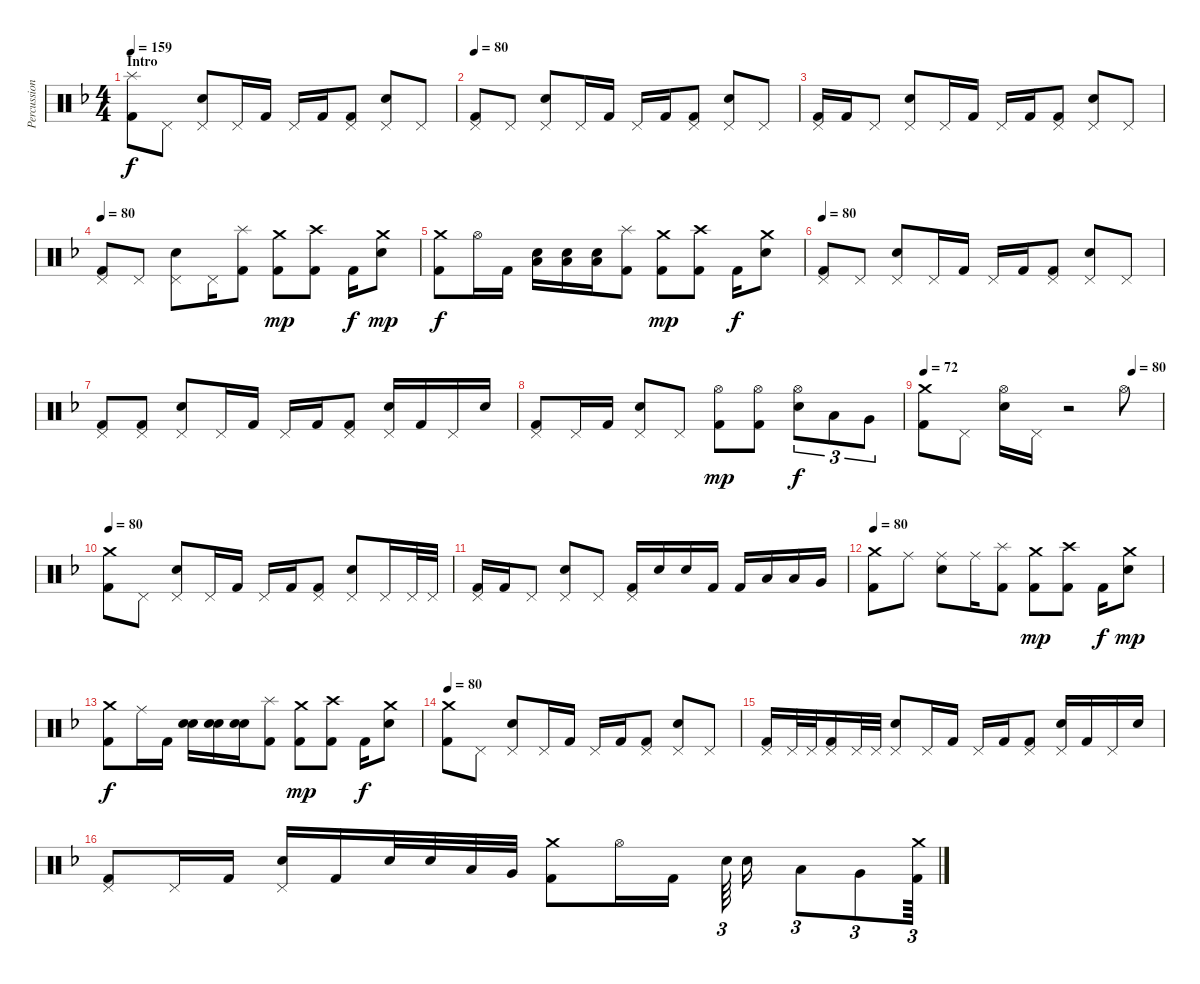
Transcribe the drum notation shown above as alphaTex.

\track ("Percussion" "Percussion") {instrument percussion}
\staff {score}
\articulation defaults
\ts (4 4)
\section ("" "Intro")
\tempo 159
\tempo 80
\tempo 159
\clef neutral
\ks f
("Splash (hit)" "Kick (hit) 2").8{dy f} "Pedal Hi-Hat (hit)".8 ("Pedal Hi-Hat (hit)" "Electric Snare (hit)").8 "Pedal Hi-Hat (hit)".16 "Kick (hit) 2".16 "Pedal Hi-Hat (hit)".16 "Kick (hit) 2".16 ("Pedal Hi-Hat (hit)" "Kick (hit) 2").8 ("Pedal Hi-Hat (hit)" "Electric Snare (hit)").8 "Pedal Hi-Hat (hit)".8 |
\tempo 80
("Pedal Hi-Hat (hit)" "Kick (hit) 2").8 "Pedal Hi-Hat (hit)".8 ("Pedal Hi-Hat (hit)" "Electric Snare (hit)").8 "Pedal Hi-Hat (hit)".16 "Kick (hit) 2".16 "Pedal Hi-Hat (hit)".16 "Kick (hit) 2".16 ("Pedal Hi-Hat (hit)" "Kick (hit) 2").8 ("Pedal Hi-Hat (hit)" "Electric Snare (hit)").8 "Pedal Hi-Hat (hit)".8 |
("Pedal Hi-Hat (hit)" "Kick (hit) 2").16 "Kick (hit) 2".16 "Pedal Hi-Hat (hit)".8 ("Pedal Hi-Hat (hit)" "Electric Snare (hit)").8 "Pedal Hi-Hat (hit)".16 "Kick (hit) 2".16 "Pedal Hi-Hat (hit)".16 "Kick (hit) 2".16 ("Pedal Hi-Hat (hit)" "Kick (hit) 2").8 ("Pedal Hi-Hat (hit)" "Electric Snare (hit)").8 "Pedal Hi-Hat (hit)".8 |
\tempo 80
("Pedal Hi-Hat (hit)" "Kick (hit) 2").8 "Pedal Hi-Hat (hit)".8 ("Pedal Hi-Hat (hit)" "Electric Snare (hit)").8 "Pedal Hi-Hat (hit)".16 ("Splash (hit)" "Kick (hit) 2").8 ("Crash medium (hit)" "Kick (hit) 2").8{dy mp} ("Crash high (hit)" "Kick (hit) 2").8 "Kick (hit) 2".16{dy f} ("Crash medium (hit)" "Electric Snare (hit)").8{dy mp} |
("Crash medium (hit)" "Kick (hit) 2").8{dy f} "Hi-Hat (open)".16 "Kick (hit) 2".16 ("Low Tom (hit)" "Electric Snare (hit)").16 ("Low Tom (hit)" "Electric Snare (hit)").16 ("Low Tom (hit)" "Electric Snare (hit)").16 ("Splash (hit)" "Kick (hit) 2").8 ("Crash medium (hit)" "Kick (hit) 2").8{dy mp} ("Crash high (hit)" "Kick (hit) 2").8 "Kick (hit) 2".16{dy f} ("Crash medium (hit)" "Electric Snare (hit)").8 |
\tempo 80
("Pedal Hi-Hat (hit)" "Kick (hit) 2").8 "Pedal Hi-Hat (hit)".8 ("Pedal Hi-Hat (hit)" "Electric Snare (hit)").8 "Pedal Hi-Hat (hit)".16 "Kick (hit) 2".16 "Pedal Hi-Hat (hit)".16 "Kick (hit) 2".16 ("Pedal Hi-Hat (hit)" "Kick (hit) 2").8 ("Pedal Hi-Hat (hit)" "Electric Snare (hit)").8 "Pedal Hi-Hat (hit)".8 |
("Pedal Hi-Hat (hit)" "Kick (hit) 2").8 ("Pedal Hi-Hat (hit)" "Kick (hit) 2").8 ("Pedal Hi-Hat (hit)" "Electric Snare (hit)").8 "Pedal Hi-Hat (hit)".16 "Kick (hit) 2".16 "Pedal Hi-Hat (hit)".16 "Kick (hit) 2".16 ("Pedal Hi-Hat (hit)" "Kick (hit) 2").8 ("Pedal Hi-Hat (hit)" "Electric Snare (hit)").16 "Kick (hit) 2".16 "Pedal Hi-Hat (hit)".16 "Electric Snare (hit)".16 |
("Pedal Hi-Hat (hit)" "Kick (hit) 2").8 "Pedal Hi-Hat (hit)".16 "Kick (hit) 2".16 ("Pedal Hi-Hat (hit)" "Electric Snare (hit)").8 "Pedal Hi-Hat (hit)".8 ("Hi-Hat (open)" "Kick (hit) 2").8{dy mp} ("Hi-Hat (open)" "Kick (hit) 2").8 ("Hi-Hat (open)" "Electric Snare (hit)").8{tu (3 2) dy f} "Low Tom (hit)".8{tu (3 2)} "Very Low Tom (hit)".8{tu (3 2)} |
\tempo 72
\tempo (80 0.875)
("Crash medium (hit)" "Kick (hit) 2").8 "Pedal Hi-Hat (hit)".8 ("Hi-Hat (open)" "Electric Snare (hit)").16 "Pedal Hi-Hat (hit)".16 r.2 "Hi-Hat (open)".8 |
\tempo 80
("Crash medium (hit)" "Kick (hit) 2").8 "Pedal Hi-Hat (hit)".8 ("Pedal Hi-Hat (hit)" "Electric Snare (hit)").8 "Pedal Hi-Hat (hit)".16 "Kick (hit) 2".16 "Pedal Hi-Hat (hit)".16 "Kick (hit) 2".16 ("Pedal Hi-Hat (hit)" "Kick (hit) 2").8 ("Pedal Hi-Hat (hit)" "Electric Snare (hit)").8 "Pedal Hi-Hat (hit)".16 "Pedal Hi-Hat (hit)".32 "Pedal Hi-Hat (hit)".32 |
("Pedal Hi-Hat (hit)" "Kick (hit) 2").16 "Kick (hit) 2".16 "Pedal Hi-Hat (hit)".8 ("Pedal Hi-Hat (hit)" "Electric Snare (hit)").8 "Pedal Hi-Hat (hit)".8 ("Pedal Hi-Hat (hit)" "Kick (hit) 2").16 "Electric Snare (hit)".16 "Electric Snare (hit)".16 "Kick (hit) 2".16 "Kick (hit) 2".16 "Low Tom (hit)".16 "Low Tom (hit)".16 "Very Low Tom (hit)".16 |
\tempo 80
("Crash medium (hit)" "Kick (hit) 2").8 "Ride (middle)".8 ("Ride (middle)" "Electric Snare (hit)").8 "Ride (middle)".16 ("Splash (hit)" "Kick (hit) 2").8 ("Crash medium (hit)" "Kick (hit) 2").8{dy mp} ("Crash high (hit)" "Kick (hit) 2").8 "Kick (hit) 2".16{dy f} ("Crash medium (hit)" "Electric Snare (hit)").8{dy mp} |
("Crash medium (hit)" "Kick (hit) 2").8{dy f} "Ride (middle)".16 "Kick (hit) 2".16 ("Electric Snare (hit)" "Electric Snare (hit)").16 ("Electric Snare (hit)" "Electric Snare (hit)").16 ("Electric Snare (hit)" "Electric Snare (hit)").16 ("Splash (hit)" "Kick (hit) 2").8 ("Crash medium (hit)" "Kick (hit) 2").8{dy mp} ("Crash high (hit)" "Kick (hit) 2").8 "Kick (hit) 2".16{dy f} ("Crash medium (hit)" "Electric Snare (hit)").8 |
\tempo 80
("Crash medium (hit)" "Kick (hit) 2").8 "Pedal Hi-Hat (hit)".8 ("Pedal Hi-Hat (hit)" "Electric Snare (hit)").8 "Pedal Hi-Hat (hit)".16 "Kick (hit) 2".16 "Pedal Hi-Hat (hit)".16 "Kick (hit) 2".16 ("Pedal Hi-Hat (hit)" "Kick (hit) 2").8 ("Pedal Hi-Hat (hit)" "Electric Snare (hit)").8 "Pedal Hi-Hat (hit)".8 |
("Pedal Hi-Hat (hit)" "Kick (hit) 2").16 "Pedal Hi-Hat (hit)".32 "Pedal Hi-Hat (hit)".32 ("Pedal Hi-Hat (hit)" "Kick (hit) 2").16 "Pedal Hi-Hat (hit)".32 "Pedal Hi-Hat (hit)".32 ("Pedal Hi-Hat (hit)" "Electric Snare (hit)").8 "Pedal Hi-Hat (hit)".16 "Kick (hit) 2".16 "Pedal Hi-Hat (hit)".16 "Kick (hit) 2".16 ("Pedal Hi-Hat (hit)" "Kick (hit) 2").8 ("Pedal Hi-Hat (hit)" "Electric Snare (hit)").16 "Kick (hit) 2".16 "Pedal Hi-Hat (hit)".16 "Electric Snare (hit)".16 |
("Pedal Hi-Hat (hit)" "Kick (hit) 2").8 "Pedal Hi-Hat (hit)".16 "Kick (hit) 2".16 ("Pedal Hi-Hat (hit)" "Electric Snare (hit)").16 "Kick (hit) 2".16 "Electric Snare (hit)".32 "Electric Snare (hit)".32 "Low Tom (hit)".32 "Very Low Tom (hit)".32 ("Crash medium (hit)" "Kick (hit) 2").8 "Hi-Hat (open)".16 "Kick (hit) 2".16 "Electric Snare (hit)".64{tu (3 2)} "Electric Snare (hit)".16 "Low Tom (hit)".8{tu (3 2)} "Very Low Tom (hit)".8{tu (3 2)} ("Crash medium (hit)" "Kick (hit) 2").64{tu (3 2)}
